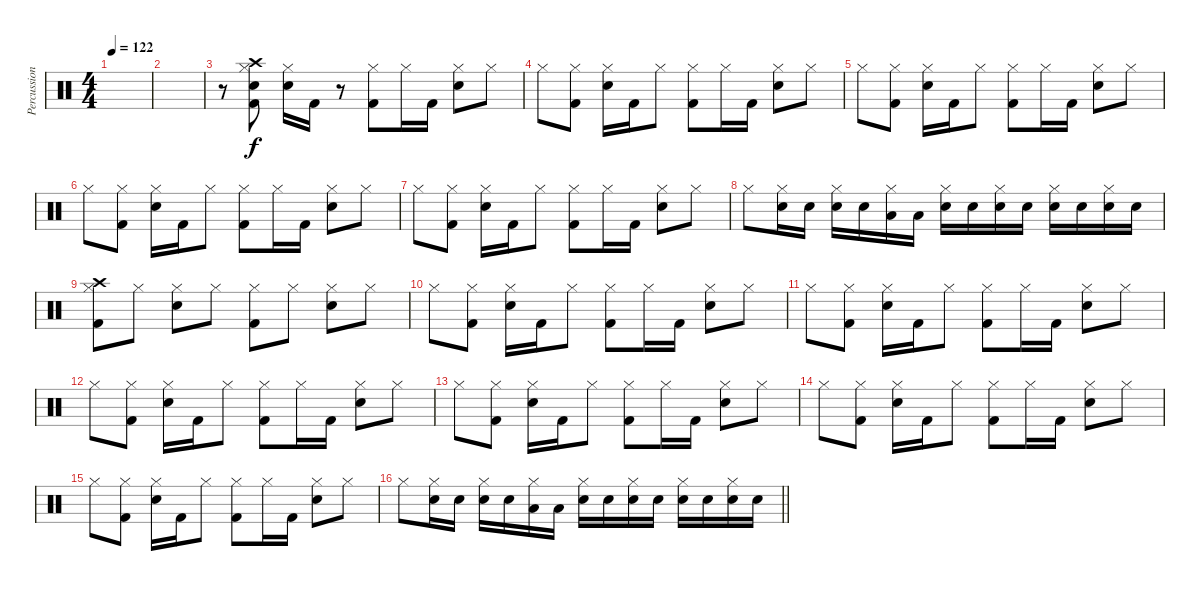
\track ("Percussion" "Percussion") {instrument percussion}
\staff {score}
\articulation defaults
\ts (4 4)
\tempo 122
\clef neutral
\ks c
|
|
r.8 ("Crash high (hit)" "Hi-Hat (closed)" "Electric Snare (hit)" "Kick (hit) 2").8 ("Hi-Hat (closed)" "Electric Snare (hit)").16 "Kick (hit) 2".16 r.8 ("Hi-Hat (closed)" "Kick (hit) 2").8 "Hi-Hat (closed)".16 "Kick (hit) 2".16 ("Hi-Hat (closed)" "Electric Snare (hit)").8 "Hi-Hat (closed)".8 |
"Hi-Hat (closed)".8 ("Hi-Hat (closed)" "Kick (hit) 2").8 ("Hi-Hat (closed)" "Electric Snare (hit)").16 "Kick (hit) 2".16 "Hi-Hat (closed)".8 ("Hi-Hat (closed)" "Kick (hit) 2").8 "Hi-Hat (closed)".16 "Kick (hit) 2".16 ("Hi-Hat (closed)" "Electric Snare (hit)").8 "Hi-Hat (closed)".8 |
"Hi-Hat (closed)".8 ("Hi-Hat (closed)" "Kick (hit) 2").8 ("Hi-Hat (closed)" "Electric Snare (hit)").16 "Kick (hit) 2".16 "Hi-Hat (closed)".8 ("Hi-Hat (closed)" "Kick (hit) 2").8 "Hi-Hat (closed)".16 "Kick (hit) 2".16 ("Hi-Hat (closed)" "Electric Snare (hit)").8 "Hi-Hat (closed)".8 |
"Hi-Hat (closed)".8 ("Hi-Hat (closed)" "Kick (hit) 2").8 ("Hi-Hat (closed)" "Electric Snare (hit)").16 "Kick (hit) 2".16 "Hi-Hat (closed)".8 ("Hi-Hat (closed)" "Kick (hit) 2").8 "Hi-Hat (closed)".16 "Kick (hit) 2".16 ("Hi-Hat (closed)" "Electric Snare (hit)").8 "Hi-Hat (closed)".8 |
"Hi-Hat (closed)".8 ("Hi-Hat (closed)" "Kick (hit) 2").8 ("Hi-Hat (closed)" "Electric Snare (hit)").16 "Kick (hit) 2".16 "Hi-Hat (closed)".8 ("Hi-Hat (closed)" "Kick (hit) 2").8 "Hi-Hat (closed)".16 "Kick (hit) 2".16 ("Hi-Hat (closed)" "Electric Snare (hit)").8 "Hi-Hat (closed)".8 |
"Hi-Hat (closed)".8 ("Hi-Hat (closed)" "Electric Snare (hit)").16 "Electric Snare (hit)".16 ("Hi-Hat (closed)" "Electric Snare (hit)").16 "Electric Snare (hit)".16 ("Hi-Hat (closed)" "Low Tom (hit)").16 "Low Tom (hit)".16 ("Hi-Hat (closed)" "Electric Snare (hit)").16 "Electric Snare (hit)".16 ("Hi-Hat (closed)" "Electric Snare (hit)").16 "Electric Snare (hit)".16 ("Hi-Hat (closed)" "Electric Snare (hit)").16 "Electric Snare (hit)".16 ("Hi-Hat (closed)" "Electric Snare (hit)").16 "Electric Snare (hit)".16 |
("Crash high (hit)" "Hi-Hat (closed)" "Kick (hit) 2").8 "Hi-Hat (closed)".8 ("Hi-Hat (closed)" "Electric Snare (hit)").8 "Hi-Hat (closed)".8 ("Hi-Hat (closed)" "Kick (hit) 2").8 "Hi-Hat (closed)".8 ("Hi-Hat (closed)" "Electric Snare (hit)").8 "Hi-Hat (closed)".8 |
"Hi-Hat (closed)".8 ("Hi-Hat (closed)" "Kick (hit) 2").8 ("Hi-Hat (closed)" "Electric Snare (hit)").16 "Kick (hit) 2".16 "Hi-Hat (closed)".8 ("Hi-Hat (closed)" "Kick (hit) 2").8 "Hi-Hat (closed)".16 "Kick (hit) 2".16 ("Hi-Hat (closed)" "Electric Snare (hit)").8 "Hi-Hat (closed)".8 |
"Hi-Hat (closed)".8 ("Hi-Hat (closed)" "Kick (hit) 2").8 ("Hi-Hat (closed)" "Electric Snare (hit)").16 "Kick (hit) 2".16 "Hi-Hat (closed)".8 ("Hi-Hat (closed)" "Kick (hit) 2").8 "Hi-Hat (closed)".16 "Kick (hit) 2".16 ("Hi-Hat (closed)" "Electric Snare (hit)").8 "Hi-Hat (closed)".8 |
"Hi-Hat (closed)".8 ("Hi-Hat (closed)" "Kick (hit) 2").8 ("Hi-Hat (closed)" "Electric Snare (hit)").16 "Kick (hit) 2".16 "Hi-Hat (closed)".8 ("Hi-Hat (closed)" "Kick (hit) 2").8 "Hi-Hat (closed)".16 "Kick (hit) 2".16 ("Hi-Hat (closed)" "Electric Snare (hit)").8 "Hi-Hat (closed)".8 |
"Hi-Hat (closed)".8 ("Hi-Hat (closed)" "Kick (hit) 2").8 ("Hi-Hat (closed)" "Electric Snare (hit)").16 "Kick (hit) 2".16 "Hi-Hat (closed)".8 ("Hi-Hat (closed)" "Kick (hit) 2").8 "Hi-Hat (closed)".16 "Kick (hit) 2".16 ("Hi-Hat (closed)" "Electric Snare (hit)").8 "Hi-Hat (closed)".8 |
"Hi-Hat (closed)".8 ("Hi-Hat (closed)" "Kick (hit) 2").8 ("Hi-Hat (closed)" "Electric Snare (hit)").16 "Kick (hit) 2".16 "Hi-Hat (closed)".8 ("Hi-Hat (closed)" "Kick (hit) 2").8 "Hi-Hat (closed)".16 "Kick (hit) 2".16 ("Hi-Hat (closed)" "Electric Snare (hit)").8 "Hi-Hat (closed)".8 |
"Hi-Hat (closed)".8 ("Hi-Hat (closed)" "Kick (hit) 2").8 ("Hi-Hat (closed)" "Electric Snare (hit)").16 "Kick (hit) 2".16 "Hi-Hat (closed)".8 ("Hi-Hat (closed)" "Kick (hit) 2").8 "Hi-Hat (closed)".16 "Kick (hit) 2".16 ("Hi-Hat (closed)" "Electric Snare (hit)").8 "Hi-Hat (closed)".8 |
\barLineRight lightlight "Hi-Hat (closed)".8
("Hi-Hat (closed)" "Electric Snare (hit)").16 "Electric Snare (hit)".16 ("Hi-Hat (closed)" "Electric Snare (hit)").16 "Electric Snare (hit)".16 ("Hi-Hat (closed)" "Low Tom (hit)").16 "Low Tom (hit)".16 ("Hi-Hat (closed)" "Electric Snare (hit)").16 "Electric Snare (hit)".16 ("Hi-Hat (closed)" "Electric Snare (hit)").16 "Electric Snare (hit)".16 ("Hi-Hat (closed)" "Electric Snare (hit)").16 "Electric Snare (hit)".16 ("Hi-Hat (closed)" "Electric Snare (hit)").16 "Electric Snare (hit)".16
